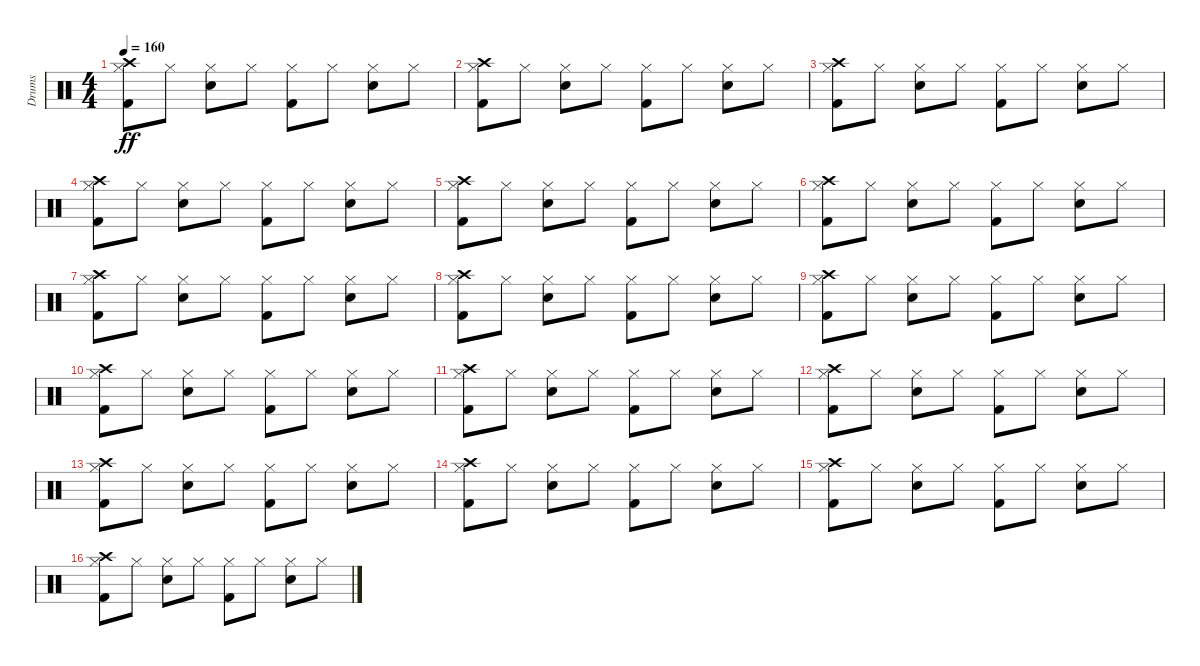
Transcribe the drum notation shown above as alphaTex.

\track ("Drums" "Drums") {instrument percussion}
\staff {score}
\articulation defaults
\ts (4 4)
\tempo 160
\clef neutral
\ks c
("Kick (hit) 2" "Hi-Hat (closed)" "Crash high (hit)").8{dy ff volume 13 balance 8} "Hi-Hat (closed)".8 ("Snare (hit) 2" "Hi-Hat (closed)").8 "Hi-Hat (closed)".8 ("Kick (hit) 2" "Hi-Hat (closed)").8 "Hi-Hat (closed)".8 ("Snare (hit) 2" "Hi-Hat (closed)").8 "Hi-Hat (closed)".8 |
("Kick (hit) 2" "Hi-Hat (closed)" "Crash high (hit)").8{volume 12 balance 8} "Hi-Hat (closed)".8 ("Snare (hit) 2" "Hi-Hat (closed)").8 "Hi-Hat (closed)".8 ("Kick (hit) 2" "Hi-Hat (closed)").8 "Hi-Hat (closed)".8 ("Snare (hit) 2" "Hi-Hat (closed)").8 "Hi-Hat (closed)".8 |
("Kick (hit) 2" "Hi-Hat (closed)" "Crash high (hit)").8{volume 12 balance 8} "Hi-Hat (closed)".8 ("Snare (hit) 2" "Hi-Hat (closed)").8 "Hi-Hat (closed)".8 ("Kick (hit) 2" "Hi-Hat (closed)").8 "Hi-Hat (closed)".8 ("Snare (hit) 2" "Hi-Hat (closed)").8 "Hi-Hat (closed)".8 |
("Kick (hit) 2" "Hi-Hat (closed)" "Crash high (hit)").8{volume 11 balance 8} "Hi-Hat (closed)".8 ("Snare (hit) 2" "Hi-Hat (closed)").8 "Hi-Hat (closed)".8 ("Kick (hit) 2" "Hi-Hat (closed)").8 "Hi-Hat (closed)".8 ("Snare (hit) 2" "Hi-Hat (closed)").8 "Hi-Hat (closed)".8 |
("Kick (hit) 2" "Hi-Hat (closed)" "Crash high (hit)").8{volume 11 balance 8} "Hi-Hat (closed)".8 ("Snare (hit) 2" "Hi-Hat (closed)").8 "Hi-Hat (closed)".8 ("Kick (hit) 2" "Hi-Hat (closed)").8 "Hi-Hat (closed)".8 ("Snare (hit) 2" "Hi-Hat (closed)").8 "Hi-Hat (closed)".8 |
("Kick (hit) 2" "Hi-Hat (closed)" "Crash high (hit)").8{volume 10 balance 8} "Hi-Hat (closed)".8 ("Snare (hit) 2" "Hi-Hat (closed)").8 "Hi-Hat (closed)".8 ("Kick (hit) 2" "Hi-Hat (closed)").8 "Hi-Hat (closed)".8 ("Snare (hit) 2" "Hi-Hat (closed)").8 "Hi-Hat (closed)".8 |
("Kick (hit) 2" "Hi-Hat (closed)" "Crash high (hit)").8{volume 10 balance 8} "Hi-Hat (closed)".8 ("Snare (hit) 2" "Hi-Hat (closed)").8 "Hi-Hat (closed)".8 ("Kick (hit) 2" "Hi-Hat (closed)").8 "Hi-Hat (closed)".8 ("Snare (hit) 2" "Hi-Hat (closed)").8 "Hi-Hat (closed)".8 |
("Kick (hit) 2" "Hi-Hat (closed)" "Crash high (hit)").8{volume 8 balance 8} "Hi-Hat (closed)".8 ("Snare (hit) 2" "Hi-Hat (closed)").8 "Hi-Hat (closed)".8 ("Kick (hit) 2" "Hi-Hat (closed)").8 "Hi-Hat (closed)".8 ("Snare (hit) 2" "Hi-Hat (closed)").8 "Hi-Hat (closed)".8 |
("Kick (hit) 2" "Hi-Hat (closed)" "Crash high (hit)").8{volume 8 balance 8} "Hi-Hat (closed)".8 ("Snare (hit) 2" "Hi-Hat (closed)").8 "Hi-Hat (closed)".8 ("Kick (hit) 2" "Hi-Hat (closed)").8 "Hi-Hat (closed)".8 ("Snare (hit) 2" "Hi-Hat (closed)").8 "Hi-Hat (closed)".8 |
("Kick (hit) 2" "Hi-Hat (closed)" "Crash high (hit)").8{volume 7 balance 8} "Hi-Hat (closed)".8 ("Snare (hit) 2" "Hi-Hat (closed)").8 "Hi-Hat (closed)".8 ("Kick (hit) 2" "Hi-Hat (closed)").8 "Hi-Hat (closed)".8 ("Snare (hit) 2" "Hi-Hat (closed)").8 "Hi-Hat (closed)".8 |
("Kick (hit) 2" "Hi-Hat (closed)" "Crash high (hit)").8{volume 7 balance 8} "Hi-Hat (closed)".8 ("Snare (hit) 2" "Hi-Hat (closed)").8 "Hi-Hat (closed)".8 ("Kick (hit) 2" "Hi-Hat (closed)").8 "Hi-Hat (closed)".8 ("Snare (hit) 2" "Hi-Hat (closed)").8 "Hi-Hat (closed)".8 |
("Kick (hit) 2" "Hi-Hat (closed)" "Crash high (hit)").8{volume 6 balance 8} "Hi-Hat (closed)".8 ("Snare (hit) 2" "Hi-Hat (closed)").8 "Hi-Hat (closed)".8 ("Kick (hit) 2" "Hi-Hat (closed)").8 "Hi-Hat (closed)".8 ("Snare (hit) 2" "Hi-Hat (closed)").8 "Hi-Hat (closed)".8 |
("Kick (hit) 2" "Hi-Hat (closed)" "Crash high (hit)").8{volume 6 balance 8} "Hi-Hat (closed)".8 ("Snare (hit) 2" "Hi-Hat (closed)").8 "Hi-Hat (closed)".8 ("Kick (hit) 2" "Hi-Hat (closed)").8 "Hi-Hat (closed)".8 ("Snare (hit) 2" "Hi-Hat (closed)").8 "Hi-Hat (closed)".8 |
("Kick (hit) 2" "Hi-Hat (closed)" "Crash high (hit)").8{volume 5 balance 8} "Hi-Hat (closed)".8 ("Snare (hit) 2" "Hi-Hat (closed)").8 "Hi-Hat (closed)".8 ("Kick (hit) 2" "Hi-Hat (closed)").8 "Hi-Hat (closed)".8 ("Snare (hit) 2" "Hi-Hat (closed)").8 "Hi-Hat (closed)".8 |
("Kick (hit) 2" "Hi-Hat (closed)" "Crash high (hit)").8{volume 5 balance 8} "Hi-Hat (closed)".8 ("Snare (hit) 2" "Hi-Hat (closed)").8 "Hi-Hat (closed)".8 ("Kick (hit) 2" "Hi-Hat (closed)").8 "Hi-Hat (closed)".8 ("Snare (hit) 2" "Hi-Hat (closed)").8 "Hi-Hat (closed)".8 |
("Kick (hit) 2" "Hi-Hat (closed)" "Crash high (hit)").8{volume 4 balance 8} "Hi-Hat (closed)".8 ("Snare (hit) 2" "Hi-Hat (closed)").8 "Hi-Hat (closed)".8 ("Kick (hit) 2" "Hi-Hat (closed)").8 "Hi-Hat (closed)".8 ("Snare (hit) 2" "Hi-Hat (closed)").8 "Hi-Hat (closed)".8
